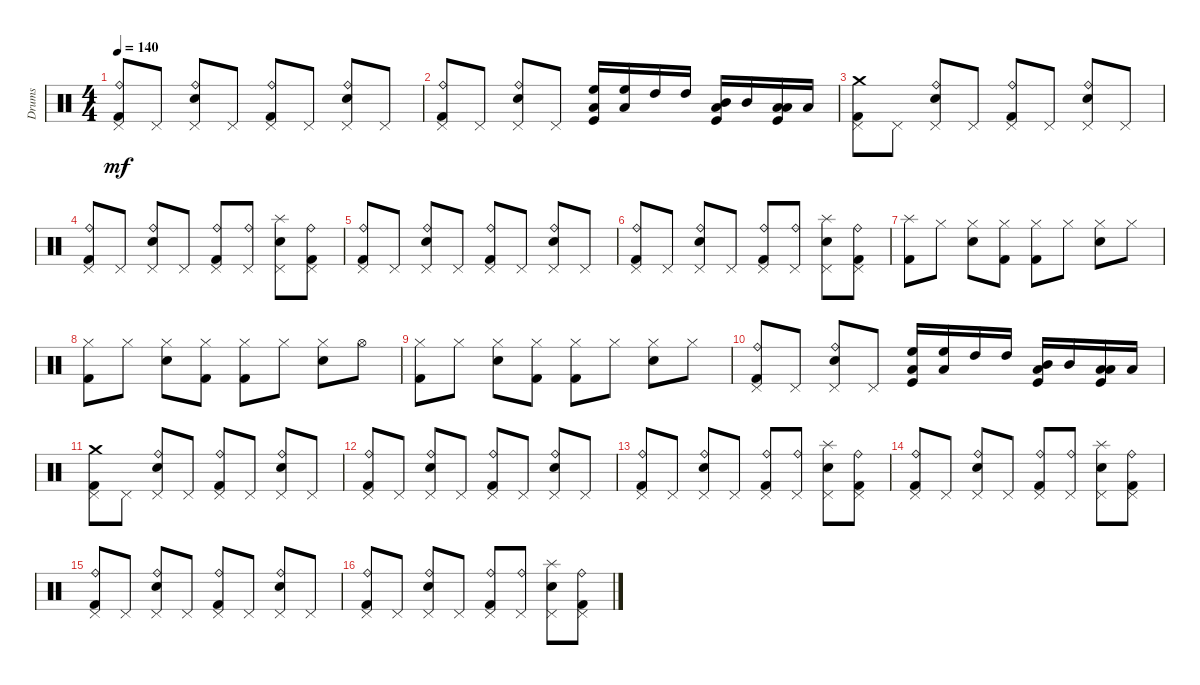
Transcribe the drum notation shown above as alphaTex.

\track ("Drums" "Drums") {instrument percussion}
\staff {score}
\articulation defaults
\ts (4 4)
\tempo 140
\clef neutral
\ks c
("Ride (bell)" "Pedal Hi-Hat (hit)" "Kick (hit) 2").8{dy mf} "Pedal Hi-Hat (hit)".8 ("Ride (bell)" "Pedal Hi-Hat (hit)" "Snare (hit) 2").8 "Pedal Hi-Hat (hit)".8 ("Ride (bell)" "Pedal Hi-Hat (hit)" "Kick (hit) 2").8 "Pedal Hi-Hat (hit)".8 ("Ride (bell)" "Pedal Hi-Hat (hit)" "Snare (hit) 2").8 "Pedal Hi-Hat (hit)".8 |
("Ride (bell)" "Pedal Hi-Hat (hit)" "Kick (hit) 2").8 "Pedal Hi-Hat (hit)".8 ("Ride (bell)" "Pedal Hi-Hat (hit)" "Snare (hit) 2").8 "Pedal Hi-Hat (hit)".8 ("High Floor Tom (hit)" "Low Floor Tom (hit)" "Kick (hit)").16 ("High Floor Tom (hit)" "Low Floor Tom (hit)").16 "High Tom (hit)".16 "High Tom (hit)".16 ("Mid Tom (hit)" "Low Floor Tom (hit)" "Kick (hit)").16 "Mid Tom (hit)".16 ("Low Tom (hit)" "Low Floor Tom (hit)" "Kick (hit)").16 "Low Tom (hit)".16 |
("Crash medium (hit)" "Pedal Hi-Hat (hit)" "Kick (hit) 2").8 "Pedal Hi-Hat (hit)".8 ("Ride (bell)" "Pedal Hi-Hat (hit)" "Snare (hit) 2").8 "Pedal Hi-Hat (hit)".8 ("Ride (bell)" "Pedal Hi-Hat (hit)" "Kick (hit) 2").8 "Pedal Hi-Hat (hit)".8 ("Ride (bell)" "Pedal Hi-Hat (hit)" "Snare (hit) 2").8 "Pedal Hi-Hat (hit)".8 |
("Ride (bell)" "Pedal Hi-Hat (hit)" "Kick (hit) 2").8 "Pedal Hi-Hat (hit)".8 ("Ride (bell)" "Pedal Hi-Hat (hit)" "Snare (hit) 2").8 "Pedal Hi-Hat (hit)".8 ("Ride (bell)" "Pedal Hi-Hat (hit)" "Kick (hit) 2").8 ("Ride (bell)" "Pedal Hi-Hat (hit)").8 ("Splash (hit)" "Pedal Hi-Hat (hit)" "Snare (hit) 2").8 ("Ride (bell)" "Pedal Hi-Hat (hit)" "Kick (hit) 2").8 |
("Ride (bell)" "Pedal Hi-Hat (hit)" "Kick (hit) 2").8 "Pedal Hi-Hat (hit)".8 ("Ride (bell)" "Pedal Hi-Hat (hit)" "Snare (hit) 2").8 "Pedal Hi-Hat (hit)".8 ("Ride (bell)" "Pedal Hi-Hat (hit)" "Kick (hit) 2").8 "Pedal Hi-Hat (hit)".8 ("Ride (bell)" "Pedal Hi-Hat (hit)" "Snare (hit) 2").8 "Pedal Hi-Hat (hit)".8 |
("Ride (bell)" "Pedal Hi-Hat (hit)" "Kick (hit) 2").8 "Pedal Hi-Hat (hit)".8 ("Ride (bell)" "Pedal Hi-Hat (hit)" "Snare (hit) 2").8 "Pedal Hi-Hat (hit)".8 ("Ride (bell)" "Pedal Hi-Hat (hit)" "Kick (hit) 2").8 ("Ride (bell)" "Pedal Hi-Hat (hit)").8 ("Splash (hit)" "Pedal Hi-Hat (hit)" "Snare (hit) 2").8 ("Ride (bell)" "Pedal Hi-Hat (hit)" "Kick (hit) 2").8 |
("Splash (hit)" "Kick (hit) 2").8 "Hi-Hat (closed)".8 ("Hi-Hat (closed)" "Snare (hit) 2").8 ("Hi-Hat (closed)" "Kick (hit) 2").8 ("Hi-Hat (closed)" "Kick (hit) 2").8 "Hi-Hat (closed)".8 ("Hi-Hat (closed)" "Snare (hit) 2").8 "Hi-Hat (closed)".8 |
("Hi-Hat (closed)" "Kick (hit) 2").8 "Hi-Hat (closed)".8 ("Hi-Hat (closed)" "Snare (hit) 2").8 ("Hi-Hat (closed)" "Kick (hit) 2").8 ("Hi-Hat (closed)" "Kick (hit) 2").8 "Hi-Hat (closed)".8 ("Hi-Hat (closed)" "Snare (hit) 2").8 "Hi-Hat (open)".8 |
("Hi-Hat (closed)" "Kick (hit) 2").8 "Hi-Hat (closed)".8 ("Hi-Hat (closed)" "Snare (hit) 2").8 ("Hi-Hat (closed)" "Kick (hit) 2").8 ("Hi-Hat (closed)" "Kick (hit) 2").8 "Hi-Hat (closed)".8 ("Hi-Hat (closed)" "Snare (hit) 2").8 "Hi-Hat (closed)".8 |
("Ride (bell)" "Pedal Hi-Hat (hit)" "Kick (hit) 2").8 "Pedal Hi-Hat (hit)".8 ("Ride (bell)" "Pedal Hi-Hat (hit)" "Snare (hit) 2").8 "Pedal Hi-Hat (hit)".8 ("High Floor Tom (hit)" "Low Floor Tom (hit)" "Kick (hit)").16 ("High Floor Tom (hit)" "Low Floor Tom (hit)").16 "High Tom (hit)".16 "High Tom (hit)".16 ("Mid Tom (hit)" "Low Floor Tom (hit)" "Kick (hit)").16 "Mid Tom (hit)".16 ("Low Tom (hit)" "Low Floor Tom (hit)" "Kick (hit)").16 "Low Tom (hit)".16 |
("Crash medium (hit)" "Pedal Hi-Hat (hit)" "Kick (hit) 2").8 "Pedal Hi-Hat (hit)".8 ("Ride (bell)" "Pedal Hi-Hat (hit)" "Snare (hit) 2").8 "Pedal Hi-Hat (hit)".8 ("Ride (bell)" "Pedal Hi-Hat (hit)" "Kick (hit) 2").8 "Pedal Hi-Hat (hit)".8 ("Ride (bell)" "Pedal Hi-Hat (hit)" "Snare (hit) 2").8 "Pedal Hi-Hat (hit)".8 |
("Ride (bell)" "Pedal Hi-Hat (hit)" "Kick (hit) 2").8 "Pedal Hi-Hat (hit)".8 ("Ride (bell)" "Pedal Hi-Hat (hit)" "Snare (hit) 2").8 "Pedal Hi-Hat (hit)".8 ("Ride (bell)" "Pedal Hi-Hat (hit)" "Kick (hit) 2").8 "Pedal Hi-Hat (hit)".8 ("Ride (bell)" "Pedal Hi-Hat (hit)" "Snare (hit) 2").8 "Pedal Hi-Hat (hit)".8 |
("Ride (bell)" "Pedal Hi-Hat (hit)" "Kick (hit) 2").8 "Pedal Hi-Hat (hit)".8 ("Ride (bell)" "Pedal Hi-Hat (hit)" "Snare (hit) 2").8 "Pedal Hi-Hat (hit)".8 ("Ride (bell)" "Pedal Hi-Hat (hit)" "Kick (hit) 2").8 ("Ride (bell)" "Pedal Hi-Hat (hit)").8 ("Splash (hit)" "Pedal Hi-Hat (hit)" "Snare (hit) 2").8 ("Ride (bell)" "Pedal Hi-Hat (hit)" "Kick (hit) 2").8 |
("Ride (bell)" "Pedal Hi-Hat (hit)" "Kick (hit) 2").8 "Pedal Hi-Hat (hit)".8 ("Ride (bell)" "Pedal Hi-Hat (hit)" "Snare (hit) 2").8 "Pedal Hi-Hat (hit)".8 ("Ride (bell)" "Pedal Hi-Hat (hit)" "Kick (hit) 2").8 ("Ride (bell)" "Pedal Hi-Hat (hit)").8 ("Splash (hit)" "Pedal Hi-Hat (hit)" "Snare (hit) 2").8 ("Ride (bell)" "Pedal Hi-Hat (hit)" "Kick (hit) 2").8 |
("Ride (bell)" "Pedal Hi-Hat (hit)" "Kick (hit) 2").8 "Pedal Hi-Hat (hit)".8 ("Ride (bell)" "Pedal Hi-Hat (hit)" "Snare (hit) 2").8 "Pedal Hi-Hat (hit)".8 ("Ride (bell)" "Pedal Hi-Hat (hit)" "Kick (hit) 2").8 "Pedal Hi-Hat (hit)".8 ("Ride (bell)" "Pedal Hi-Hat (hit)" "Snare (hit) 2").8 "Pedal Hi-Hat (hit)".8 |
("Ride (bell)" "Pedal Hi-Hat (hit)" "Kick (hit) 2").8 "Pedal Hi-Hat (hit)".8 ("Ride (bell)" "Pedal Hi-Hat (hit)" "Snare (hit) 2").8 "Pedal Hi-Hat (hit)".8 ("Ride (bell)" "Pedal Hi-Hat (hit)" "Kick (hit) 2").8 ("Ride (bell)" "Pedal Hi-Hat (hit)").8 ("Splash (hit)" "Pedal Hi-Hat (hit)" "Snare (hit) 2").8 ("Ride (bell)" "Pedal Hi-Hat (hit)" "Kick (hit) 2").8
